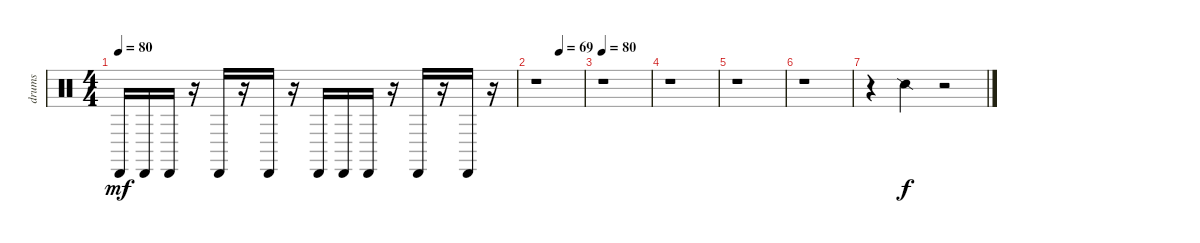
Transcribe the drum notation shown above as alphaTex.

\track ("drums" "drums") {instrument percussion}
\staff {score}
\articulation defaults
\ts (4 4)
\tempo 80
\clef neutral
\ks c "Cabasa (hit)".16{dy mf} "Cabasa (hit)".16 "Cabasa (hit)".16
r.16 "Cabasa (hit)".16 r.16 "Cabasa (hit)".16 r.16 "Cabasa (hit)".16 "Cabasa (hit)".16 "Cabasa (hit)".16 r.16 "Cabasa (hit)".16 r.16 "Cabasa (hit)".16 r.16 |
\tempo (69 0.5)
r.1 |
\tempo 80
r.1 |
r.1 |
r.1 |
r.1 |
r.4 "Snare (side stick) 2".4{dy f} r.2
